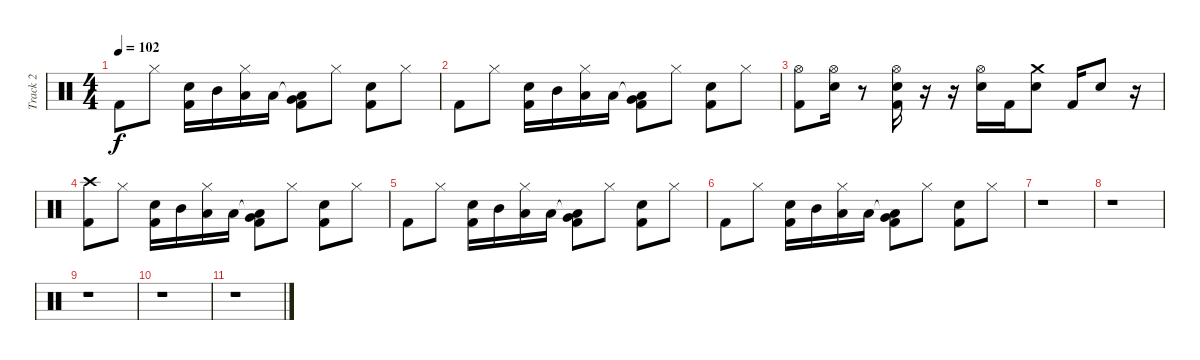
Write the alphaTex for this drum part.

\track ("Track 2" "Track 2") {instrument percussion}
\staff {score}
\articulation defaults
\ts (4 4)
\tempo 102
\clef neutral
\ks c "Kick (hit) 2".8{dy f} "Hi-Hat (closed)".8
("Electric Snare (hit)" "Kick (hit) 2").16 "Mid Tom (hit)".16 ("Hi-Hat (closed)" "Low Tom (hit)").16 "Low Tom (hit)".16 ("Low Tom (hit)"{t} "Very Low Tom (hit)" "Kick (hit) 2").8 "Hi-Hat (closed)".8 ("Electric Snare (hit)" "Kick (hit) 2").8 "Hi-Hat (closed)".8 |
"Kick (hit) 2".8 "Hi-Hat (closed)".8 ("Electric Snare (hit)" "Kick (hit) 2").16 "Mid Tom (hit)".16 ("Hi-Hat (closed)" "Low Tom (hit)").16 "Low Tom (hit)".16 ("Low Tom (hit)"{t} "Very Low Tom (hit)" "Kick (hit) 2").8 "Hi-Hat (closed)".8 ("Electric Snare (hit)" "Kick (hit) 2").8 "Hi-Hat (closed)".8 |
("Hi-Hat (open)" "Kick (hit) 2").8 ("Hi-Hat (open)" "Electric Snare (hit)").16 r.8 ("Hi-Hat (open)" "Electric Snare (hit)" "Kick (hit) 2").16 r.16 r.16 ("Hi-Hat (open)" "Electric Snare (hit)").16 "Kick (hit) 2".16 ("Crash medium (hit)" "Electric Snare (hit)").8 "Kick (hit) 2".16 "Electric Snare (hit)".8 r.16 |
("Crash high (hit)" "Kick (hit) 2").8 "Hi-Hat (closed)".8 ("Electric Snare (hit)" "Kick (hit) 2").16 "Mid Tom (hit)".16 ("Hi-Hat (closed)" "Low Tom (hit)").16 "Low Tom (hit)".16 ("Low Tom (hit)"{t} "Very Low Tom (hit)" "Kick (hit) 2").8 "Hi-Hat (closed)".8 ("Electric Snare (hit)" "Kick (hit) 2").8 "Hi-Hat (closed)".8 |
"Kick (hit) 2".8 "Hi-Hat (closed)".8 ("Electric Snare (hit)" "Kick (hit) 2").16 "Mid Tom (hit)".16 ("Hi-Hat (closed)" "Low Tom (hit)").16 "Low Tom (hit)".16 ("Low Tom (hit)"{t} "Very Low Tom (hit)" "Kick (hit) 2").8 "Hi-Hat (closed)".8 ("Electric Snare (hit)" "Kick (hit) 2").8 "Hi-Hat (closed)".8 |
"Kick (hit) 2".8 "Hi-Hat (closed)".8 ("Electric Snare (hit)" "Kick (hit) 2").16 "Mid Tom (hit)".16 ("Hi-Hat (closed)" "Low Tom (hit)").16 "Low Tom (hit)".16 ("Low Tom (hit)"{t} "Very Low Tom (hit)" "Kick (hit) 2").8 "Hi-Hat (closed)".8 ("Electric Snare (hit)" "Kick (hit) 2").8 "Hi-Hat (closed)".8 |
r.1 |
r.1 |
r.1 |
r.1 |
r.1
